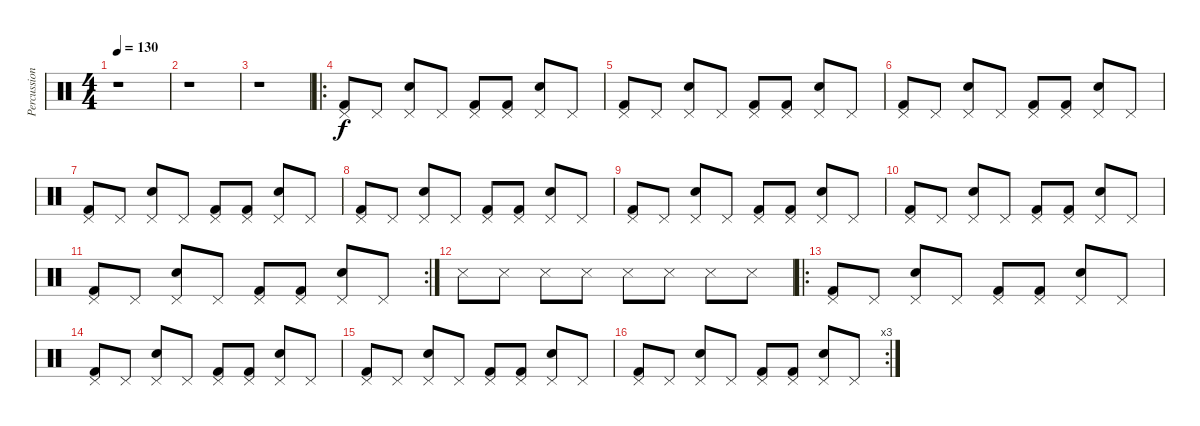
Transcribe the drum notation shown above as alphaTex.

\track ("Percussion" "Percussion") {instrument percussion}
\staff {score}
\articulation defaults
\ts (4 4)
\tempo 130
\clef neutral
\ks c
r.1{dy f} |
r.1 |
r.1 |
\ro
("Pedal Hi-Hat (hit)" "Kick (hit) 2").8 "Pedal Hi-Hat (hit)".8 ("Pedal Hi-Hat (hit)" "Snare (hit) 2").8 "Pedal Hi-Hat (hit)".8 ("Pedal Hi-Hat (hit)" "Kick (hit) 2").8 ("Pedal Hi-Hat (hit)" "Kick (hit) 2").8 ("Pedal Hi-Hat (hit)" "Snare (hit) 2").8 "Pedal Hi-Hat (hit)".8 |
("Pedal Hi-Hat (hit)" "Kick (hit) 2").8 "Pedal Hi-Hat (hit)".8 ("Pedal Hi-Hat (hit)" "Snare (hit) 2").8 "Pedal Hi-Hat (hit)".8 ("Pedal Hi-Hat (hit)" "Kick (hit) 2").8 ("Pedal Hi-Hat (hit)" "Kick (hit) 2").8 ("Pedal Hi-Hat (hit)" "Snare (hit) 2").8 "Pedal Hi-Hat (hit)".8 |
("Pedal Hi-Hat (hit)" "Kick (hit) 2").8 "Pedal Hi-Hat (hit)".8 ("Pedal Hi-Hat (hit)" "Snare (hit) 2").8 "Pedal Hi-Hat (hit)".8 ("Pedal Hi-Hat (hit)" "Kick (hit) 2").8 ("Pedal Hi-Hat (hit)" "Kick (hit) 2").8 ("Pedal Hi-Hat (hit)" "Snare (hit) 2").8 "Pedal Hi-Hat (hit)".8 |
("Pedal Hi-Hat (hit)" "Kick (hit) 2").8 "Pedal Hi-Hat (hit)".8 ("Pedal Hi-Hat (hit)" "Snare (hit) 2").8 "Pedal Hi-Hat (hit)".8 ("Pedal Hi-Hat (hit)" "Kick (hit) 2").8 ("Pedal Hi-Hat (hit)" "Kick (hit) 2").8 ("Pedal Hi-Hat (hit)" "Snare (hit) 2").8 "Pedal Hi-Hat (hit)".8 |
("Pedal Hi-Hat (hit)" "Kick (hit) 2").8 "Pedal Hi-Hat (hit)".8 ("Pedal Hi-Hat (hit)" "Snare (hit) 2").8 "Pedal Hi-Hat (hit)".8 ("Pedal Hi-Hat (hit)" "Kick (hit) 2").8 ("Pedal Hi-Hat (hit)" "Kick (hit) 2").8 ("Pedal Hi-Hat (hit)" "Snare (hit) 2").8 "Pedal Hi-Hat (hit)".8 |
("Pedal Hi-Hat (hit)" "Kick (hit) 2").8 "Pedal Hi-Hat (hit)".8 ("Pedal Hi-Hat (hit)" "Snare (hit) 2").8 "Pedal Hi-Hat (hit)".8 ("Pedal Hi-Hat (hit)" "Kick (hit) 2").8 ("Pedal Hi-Hat (hit)" "Kick (hit) 2").8 ("Pedal Hi-Hat (hit)" "Snare (hit) 2").8 "Pedal Hi-Hat (hit)".8 |
("Pedal Hi-Hat (hit)" "Kick (hit) 2").8 "Pedal Hi-Hat (hit)".8 ("Pedal Hi-Hat (hit)" "Snare (hit) 2").8 "Pedal Hi-Hat (hit)".8 ("Pedal Hi-Hat (hit)" "Kick (hit) 2").8 ("Pedal Hi-Hat (hit)" "Kick (hit) 2").8 ("Pedal Hi-Hat (hit)" "Snare (hit) 2").8 "Pedal Hi-Hat (hit)".8 |
\rc 2
("Pedal Hi-Hat (hit)" "Kick (hit) 2").8 "Pedal Hi-Hat (hit)".8 ("Pedal Hi-Hat (hit)" "Snare (hit) 2").8 "Pedal Hi-Hat (hit)".8 ("Pedal Hi-Hat (hit)" "Kick (hit) 2").8 ("Pedal Hi-Hat (hit)" "Kick (hit) 2").8 ("Pedal Hi-Hat (hit)" "Snare (hit) 2").8 "Pedal Hi-Hat (hit)".8 |
"Metronome (hit)".8 "Metronome (hit)".8 "Metronome (hit)".8 "Metronome (hit)".8 "Metronome (hit)".8 "Metronome (hit)".8 "Metronome (hit)".8 "Metronome (hit)".8 |
\ro
("Pedal Hi-Hat (hit)" "Kick (hit) 2").8 "Pedal Hi-Hat (hit)".8 ("Pedal Hi-Hat (hit)" "Snare (hit) 2").8 "Pedal Hi-Hat (hit)".8 ("Pedal Hi-Hat (hit)" "Kick (hit) 2").8 ("Pedal Hi-Hat (hit)" "Kick (hit) 2").8 ("Pedal Hi-Hat (hit)" "Snare (hit) 2").8 "Pedal Hi-Hat (hit)".8 |
("Pedal Hi-Hat (hit)" "Kick (hit) 2").8 "Pedal Hi-Hat (hit)".8 ("Pedal Hi-Hat (hit)" "Snare (hit) 2").8 "Pedal Hi-Hat (hit)".8 ("Pedal Hi-Hat (hit)" "Kick (hit) 2").8 ("Pedal Hi-Hat (hit)" "Kick (hit) 2").8 ("Pedal Hi-Hat (hit)" "Snare (hit) 2").8 "Pedal Hi-Hat (hit)".8 |
("Pedal Hi-Hat (hit)" "Kick (hit) 2").8 "Pedal Hi-Hat (hit)".8 ("Pedal Hi-Hat (hit)" "Snare (hit) 2").8 "Pedal Hi-Hat (hit)".8 ("Pedal Hi-Hat (hit)" "Kick (hit) 2").8 ("Pedal Hi-Hat (hit)" "Kick (hit) 2").8 ("Pedal Hi-Hat (hit)" "Snare (hit) 2").8 "Pedal Hi-Hat (hit)".8 |
\rc 3
("Pedal Hi-Hat (hit)" "Kick (hit) 2").8 "Pedal Hi-Hat (hit)".8 ("Pedal Hi-Hat (hit)" "Snare (hit) 2").8 "Pedal Hi-Hat (hit)".8 ("Pedal Hi-Hat (hit)" "Kick (hit) 2").8 ("Pedal Hi-Hat (hit)" "Kick (hit) 2").8 ("Pedal Hi-Hat (hit)" "Snare (hit) 2").8 "Pedal Hi-Hat (hit)".8
